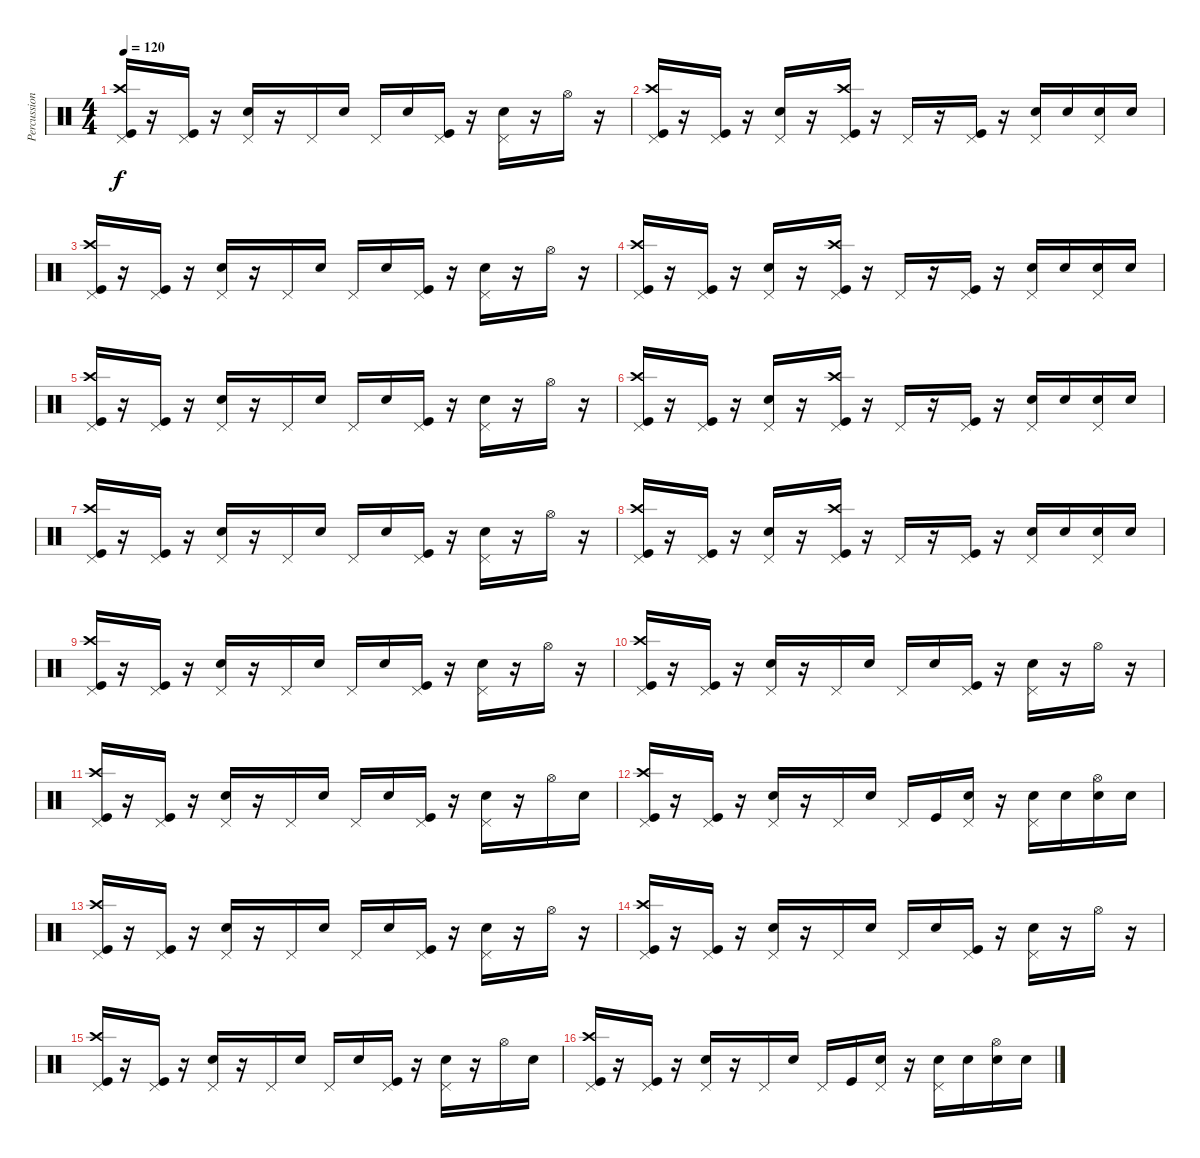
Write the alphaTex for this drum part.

\track ("Percussion" "Percussion") {instrument percussion}
\staff {score}
\articulation defaults
\ts (4 4)
\tempo 120
\clef neutral
\ks c
("Pedal Hi-Hat (hit)" "Crash high (hit)" "Kick (hit)").16{dy f} r.16 ("Pedal Hi-Hat (hit)" "Kick (hit)").16 r.16 ("Pedal Hi-Hat (hit)" "Electric Snare (hit)").16 r.16 "Pedal Hi-Hat (hit)".16 "Electric Snare (hit)".16 "Pedal Hi-Hat (hit)".16 "Electric Snare (hit)".16 ("Pedal Hi-Hat (hit)" "Kick (hit)").16 r.16 ("Pedal Hi-Hat (hit)" "Electric Snare (hit)").16 r.16 "Hi-Hat (open)".16 r.16 |
("Crash high (hit)" "Pedal Hi-Hat (hit)" "Kick (hit)").16 r.16 ("Pedal Hi-Hat (hit)" "Kick (hit)").16 r.16 ("Pedal Hi-Hat (hit)" "Electric Snare (hit)").16 r.16 ("Crash high (hit)" "Pedal Hi-Hat (hit)" "Kick (hit)").16 r.16 "Pedal Hi-Hat (hit)".16 r.16 ("Pedal Hi-Hat (hit)" "Kick (hit)").16 r.16 ("Pedal Hi-Hat (hit)" "Electric Snare (hit)").16 "Electric Snare (hit)".16 ("Pedal Hi-Hat (hit)" "Electric Snare (hit)").16 "Electric Snare (hit)".16 |
("Pedal Hi-Hat (hit)" "Crash high (hit)" "Kick (hit)").16 r.16 ("Pedal Hi-Hat (hit)" "Kick (hit)").16 r.16 ("Pedal Hi-Hat (hit)" "Electric Snare (hit)").16 r.16 "Pedal Hi-Hat (hit)".16 "Electric Snare (hit)".16 "Pedal Hi-Hat (hit)".16 "Electric Snare (hit)".16 ("Pedal Hi-Hat (hit)" "Kick (hit)").16 r.16 ("Pedal Hi-Hat (hit)" "Electric Snare (hit)").16 r.16 "Hi-Hat (open)".16 r.16 |
("Crash high (hit)" "Pedal Hi-Hat (hit)" "Kick (hit)").16 r.16 ("Pedal Hi-Hat (hit)" "Kick (hit)").16 r.16 ("Pedal Hi-Hat (hit)" "Electric Snare (hit)").16 r.16 ("Crash high (hit)" "Pedal Hi-Hat (hit)" "Kick (hit)").16 r.16 "Pedal Hi-Hat (hit)".16 r.16 ("Pedal Hi-Hat (hit)" "Kick (hit)").16 r.16 ("Pedal Hi-Hat (hit)" "Electric Snare (hit)").16 "Electric Snare (hit)".16 ("Pedal Hi-Hat (hit)" "Electric Snare (hit)").16 "Electric Snare (hit)".16 |
("Pedal Hi-Hat (hit)" "Crash high (hit)" "Kick (hit)").16 r.16 ("Pedal Hi-Hat (hit)" "Kick (hit)").16 r.16 ("Pedal Hi-Hat (hit)" "Electric Snare (hit)").16 r.16 "Pedal Hi-Hat (hit)".16 "Electric Snare (hit)".16 "Pedal Hi-Hat (hit)".16 "Electric Snare (hit)".16 ("Pedal Hi-Hat (hit)" "Kick (hit)").16 r.16 ("Pedal Hi-Hat (hit)" "Electric Snare (hit)").16 r.16 "Hi-Hat (open)".16 r.16 |
("Crash high (hit)" "Pedal Hi-Hat (hit)" "Kick (hit)").16 r.16 ("Pedal Hi-Hat (hit)" "Kick (hit)").16 r.16 ("Pedal Hi-Hat (hit)" "Electric Snare (hit)").16 r.16 ("Crash high (hit)" "Pedal Hi-Hat (hit)" "Kick (hit)").16 r.16 "Pedal Hi-Hat (hit)".16 r.16 ("Pedal Hi-Hat (hit)" "Kick (hit)").16 r.16 ("Pedal Hi-Hat (hit)" "Electric Snare (hit)").16 "Electric Snare (hit)".16 ("Pedal Hi-Hat (hit)" "Electric Snare (hit)").16 "Electric Snare (hit)".16 |
("Pedal Hi-Hat (hit)" "Crash high (hit)" "Kick (hit)").16 r.16 ("Pedal Hi-Hat (hit)" "Kick (hit)").16 r.16 ("Pedal Hi-Hat (hit)" "Electric Snare (hit)").16 r.16 "Pedal Hi-Hat (hit)".16 "Electric Snare (hit)".16 "Pedal Hi-Hat (hit)".16 "Electric Snare (hit)".16 ("Pedal Hi-Hat (hit)" "Kick (hit)").16 r.16 ("Pedal Hi-Hat (hit)" "Electric Snare (hit)").16 r.16 "Hi-Hat (open)".16 r.16 |
("Crash high (hit)" "Pedal Hi-Hat (hit)" "Kick (hit)").16 r.16 ("Pedal Hi-Hat (hit)" "Kick (hit)").16 r.16 ("Pedal Hi-Hat (hit)" "Electric Snare (hit)").16 r.16 ("Crash high (hit)" "Pedal Hi-Hat (hit)" "Kick (hit)").16 r.16 "Pedal Hi-Hat (hit)".16 r.16 ("Pedal Hi-Hat (hit)" "Kick (hit)").16 r.16 ("Pedal Hi-Hat (hit)" "Electric Snare (hit)").16 "Electric Snare (hit)".16 ("Pedal Hi-Hat (hit)" "Electric Snare (hit)").16 "Electric Snare (hit)".16 |
("Pedal Hi-Hat (hit)" "Crash high (hit)" "Kick (hit)").16 r.16 ("Pedal Hi-Hat (hit)" "Kick (hit)").16 r.16 ("Pedal Hi-Hat (hit)" "Electric Snare (hit)").16 r.16 "Pedal Hi-Hat (hit)".16 "Electric Snare (hit)".16 "Pedal Hi-Hat (hit)".16 "Electric Snare (hit)".16 ("Pedal Hi-Hat (hit)" "Kick (hit)").16 r.16 ("Pedal Hi-Hat (hit)" "Electric Snare (hit)").16 r.16 "Hi-Hat (open)".16 r.16 |
("Pedal Hi-Hat (hit)" "Crash high (hit)" "Kick (hit)").16 r.16 ("Pedal Hi-Hat (hit)" "Kick (hit)").16 r.16 ("Pedal Hi-Hat (hit)" "Electric Snare (hit)").16 r.16 "Pedal Hi-Hat (hit)".16 "Electric Snare (hit)".16 "Pedal Hi-Hat (hit)".16 "Electric Snare (hit)".16 ("Pedal Hi-Hat (hit)" "Kick (hit)").16 r.16 ("Pedal Hi-Hat (hit)" "Electric Snare (hit)").16 r.16 "Hi-Hat (open)".16 r.16 |
("Pedal Hi-Hat (hit)" "Crash high (hit)" "Kick (hit)").16 r.16 ("Pedal Hi-Hat (hit)" "Kick (hit)").16 r.16 ("Pedal Hi-Hat (hit)" "Electric Snare (hit)").16 r.16 "Pedal Hi-Hat (hit)".16 "Electric Snare (hit)".16 "Pedal Hi-Hat (hit)".16 "Electric Snare (hit)".16 ("Pedal Hi-Hat (hit)" "Kick (hit)").16 r.16 ("Pedal Hi-Hat (hit)" "Electric Snare (hit)").16 r.16 "Hi-Hat (open)".16 "Electric Snare (hit)".16 |
("Pedal Hi-Hat (hit)" "Crash high (hit)" "Kick (hit)").16 r.16 ("Pedal Hi-Hat (hit)" "Kick (hit)").16 r.16 ("Pedal Hi-Hat (hit)" "Electric Snare (hit)").16 r.16 "Pedal Hi-Hat (hit)".16 "Electric Snare (hit)".16 "Pedal Hi-Hat (hit)".16 "Kick (hit)".16 ("Pedal Hi-Hat (hit)" "Electric Snare (hit)").16 r.16 ("Pedal Hi-Hat (hit)" "Electric Snare (hit)").16 "Electric Snare (hit)".16 ("Hi-Hat (open)" "Electric Snare (hit)").16 "Electric Snare (hit)".16 |
("Pedal Hi-Hat (hit)" "Crash high (hit)" "Kick (hit)").16 r.16 ("Pedal Hi-Hat (hit)" "Kick (hit)").16 r.16 ("Pedal Hi-Hat (hit)" "Electric Snare (hit)").16 r.16 "Pedal Hi-Hat (hit)".16 "Electric Snare (hit)".16 "Pedal Hi-Hat (hit)".16 "Electric Snare (hit)".16 ("Pedal Hi-Hat (hit)" "Kick (hit)").16 r.16 ("Pedal Hi-Hat (hit)" "Electric Snare (hit)").16 r.16 "Hi-Hat (open)".16 r.16 |
("Pedal Hi-Hat (hit)" "Crash high (hit)" "Kick (hit)").16 r.16 ("Pedal Hi-Hat (hit)" "Kick (hit)").16 r.16 ("Pedal Hi-Hat (hit)" "Electric Snare (hit)").16 r.16 "Pedal Hi-Hat (hit)".16 "Electric Snare (hit)".16 "Pedal Hi-Hat (hit)".16 "Electric Snare (hit)".16 ("Pedal Hi-Hat (hit)" "Kick (hit)").16 r.16 ("Pedal Hi-Hat (hit)" "Electric Snare (hit)").16 r.16 "Hi-Hat (open)".16 r.16 |
("Pedal Hi-Hat (hit)" "Crash high (hit)" "Kick (hit)").16 r.16 ("Pedal Hi-Hat (hit)" "Kick (hit)").16 r.16 ("Pedal Hi-Hat (hit)" "Electric Snare (hit)").16 r.16 "Pedal Hi-Hat (hit)".16 "Electric Snare (hit)".16 "Pedal Hi-Hat (hit)".16 "Electric Snare (hit)".16 ("Pedal Hi-Hat (hit)" "Kick (hit)").16 r.16 ("Pedal Hi-Hat (hit)" "Electric Snare (hit)").16 r.16 "Hi-Hat (open)".16 "Electric Snare (hit)".16 |
("Pedal Hi-Hat (hit)" "Crash high (hit)" "Kick (hit)").16 r.16 ("Pedal Hi-Hat (hit)" "Kick (hit)").16 r.16 ("Pedal Hi-Hat (hit)" "Electric Snare (hit)").16 r.16 "Pedal Hi-Hat (hit)".16 "Electric Snare (hit)".16 "Pedal Hi-Hat (hit)".16 "Kick (hit)".16 ("Pedal Hi-Hat (hit)" "Electric Snare (hit)").16 r.16 ("Pedal Hi-Hat (hit)" "Electric Snare (hit)").16 "Electric Snare (hit)".16 ("Hi-Hat (open)" "Electric Snare (hit)").16 "Electric Snare (hit)".16
